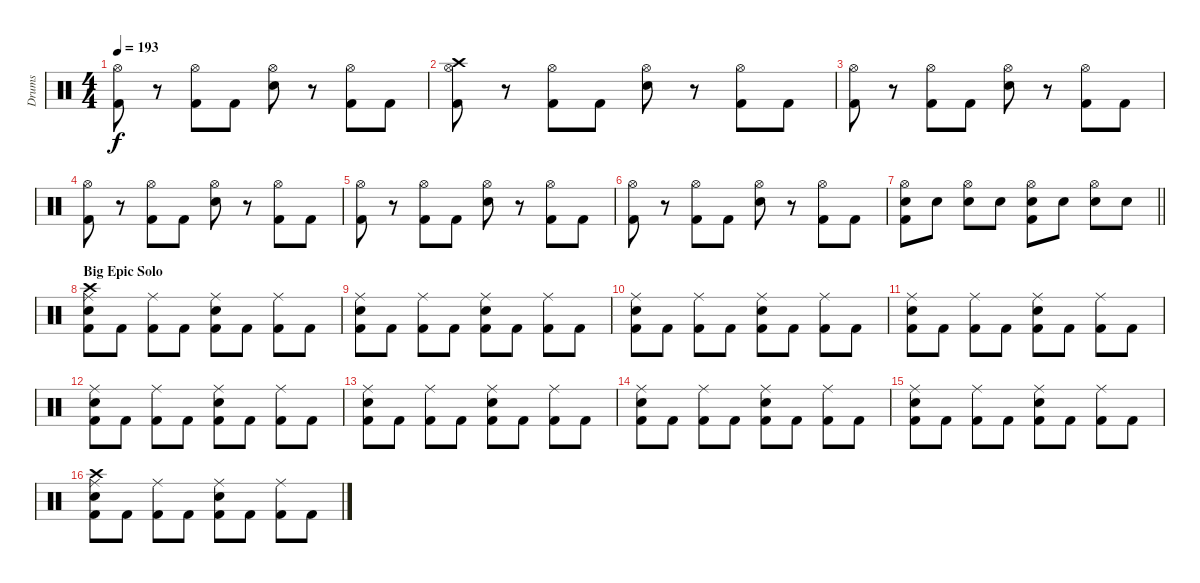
\track ("Drums" "Drums") {instrument percussion}
\staff {score}
\articulation defaults
\ts (4 4)
\tempo 193
\clef neutral
\ks c
("Hi-Hat (open)" "Kick (hit) 2").8{dy f} r.8 ("Hi-Hat (open)" "Kick (hit) 2").8 "Kick (hit) 2".8 ("Hi-Hat (open)" "Snare (hit) 2").8 r.8 ("Hi-Hat (open)" "Kick (hit) 2").8 "Kick (hit) 2".8 |
("Crash high (hit)" "Hi-Hat (open)" "Kick (hit) 2").8 r.8 ("Hi-Hat (open)" "Kick (hit) 2").8 "Kick (hit) 2".8 ("Hi-Hat (open)" "Snare (hit) 2").8 r.8 ("Hi-Hat (open)" "Kick (hit) 2").8 "Kick (hit) 2".8 |
("Hi-Hat (open)" "Kick (hit) 2").8 r.8 ("Hi-Hat (open)" "Kick (hit) 2").8 "Kick (hit) 2".8 ("Hi-Hat (open)" "Snare (hit) 2").8 r.8 ("Hi-Hat (open)" "Kick (hit) 2").8 "Kick (hit) 2".8 |
("Hi-Hat (open)" "Kick (hit) 2").8 r.8 ("Hi-Hat (open)" "Kick (hit) 2").8 "Kick (hit) 2".8 ("Hi-Hat (open)" "Snare (hit) 2").8 r.8 ("Hi-Hat (open)" "Kick (hit) 2").8 "Kick (hit) 2".8 |
("Hi-Hat (open)" "Kick (hit) 2").8 r.8 ("Hi-Hat (open)" "Kick (hit) 2").8 "Kick (hit) 2".8 ("Hi-Hat (open)" "Snare (hit) 2").8 r.8 ("Hi-Hat (open)" "Kick (hit) 2").8 "Kick (hit) 2".8 |
("Hi-Hat (open)" "Kick (hit) 2").8 r.8 ("Hi-Hat (open)" "Kick (hit) 2").8 "Kick (hit) 2".8 ("Hi-Hat (open)" "Snare (hit) 2").8 r.8 ("Hi-Hat (open)" "Kick (hit) 2").8 "Kick (hit) 2".8 |
\barLineRight lightlight
("Hi-Hat (open)" "Snare (hit) 2" "Kick (hit) 2").8 "Snare (hit) 2".8 ("Hi-Hat (open)" "Snare (hit) 2").8 "Snare (hit) 2".8 ("Hi-Hat (open)" "Snare (hit) 2" "Kick (hit) 2").8 "Snare (hit) 2".8 ("Hi-Hat (open)" "Snare (hit) 2").8 "Snare (hit) 2".8 |
\section ("" "Big Epic Solo")
("Crash high (hit)" "Ride (middle)" "Snare (hit) 2" "Kick (hit) 2").8 "Kick (hit) 2".8 ("Ride (middle)" "Kick (hit) 2").8 "Kick (hit) 2".8 ("Ride (middle)" "Snare (hit) 2" "Kick (hit) 2").8 "Kick (hit) 2".8 ("Ride (middle)" "Kick (hit) 2").8 "Kick (hit) 2".8 |
("Ride (middle)" "Snare (hit) 2" "Kick (hit) 2").8 "Kick (hit) 2".8 ("Ride (middle)" "Kick (hit) 2").8 "Kick (hit) 2".8 ("Ride (middle)" "Snare (hit) 2" "Kick (hit) 2").8 "Kick (hit) 2".8 ("Ride (middle)" "Kick (hit) 2").8 "Kick (hit) 2".8 |
("Ride (middle)" "Snare (hit) 2" "Kick (hit) 2").8 "Kick (hit) 2".8 ("Ride (middle)" "Kick (hit) 2").8 "Kick (hit) 2".8 ("Ride (middle)" "Snare (hit) 2" "Kick (hit) 2").8 "Kick (hit) 2".8 ("Ride (middle)" "Kick (hit) 2").8 "Kick (hit) 2".8 |
("Ride (middle)" "Snare (hit) 2" "Kick (hit) 2").8 "Kick (hit) 2".8 ("Ride (middle)" "Kick (hit) 2").8 "Kick (hit) 2".8 ("Ride (middle)" "Snare (hit) 2" "Kick (hit) 2").8 "Kick (hit) 2".8 ("Ride (middle)" "Kick (hit) 2").8 "Kick (hit) 2".8 |
("Ride (middle)" "Snare (hit) 2" "Kick (hit) 2").8 "Kick (hit) 2".8 ("Ride (middle)" "Kick (hit) 2").8 "Kick (hit) 2".8 ("Ride (middle)" "Snare (hit) 2" "Kick (hit) 2").8 "Kick (hit) 2".8 ("Ride (middle)" "Kick (hit) 2").8 "Kick (hit) 2".8 |
("Ride (middle)" "Snare (hit) 2" "Kick (hit) 2").8 "Kick (hit) 2".8 ("Ride (middle)" "Kick (hit) 2").8 "Kick (hit) 2".8 ("Ride (middle)" "Snare (hit) 2" "Kick (hit) 2").8 "Kick (hit) 2".8 ("Ride (middle)" "Kick (hit) 2").8 "Kick (hit) 2".8 |
("Ride (middle)" "Snare (hit) 2" "Kick (hit) 2").8 "Kick (hit) 2".8 ("Ride (middle)" "Kick (hit) 2").8 "Kick (hit) 2".8 ("Ride (middle)" "Snare (hit) 2" "Kick (hit) 2").8 "Kick (hit) 2".8 ("Ride (middle)" "Kick (hit) 2").8 "Kick (hit) 2".8 |
("Ride (middle)" "Snare (hit) 2" "Kick (hit) 2").8 "Kick (hit) 2".8 ("Ride (middle)" "Kick (hit) 2").8 "Kick (hit) 2".8 ("Ride (middle)" "Snare (hit) 2" "Kick (hit) 2").8 "Kick (hit) 2".8 ("Ride (middle)" "Kick (hit) 2").8 "Kick (hit) 2".8 |
("Crash high (hit)" "Ride (middle)" "Snare (hit) 2" "Kick (hit) 2").8 "Kick (hit) 2".8 ("Ride (middle)" "Kick (hit) 2").8 "Kick (hit) 2".8 ("Ride (middle)" "Snare (hit) 2" "Kick (hit) 2").8 "Kick (hit) 2".8 ("Ride (middle)" "Kick (hit) 2").8 "Kick (hit) 2".8
